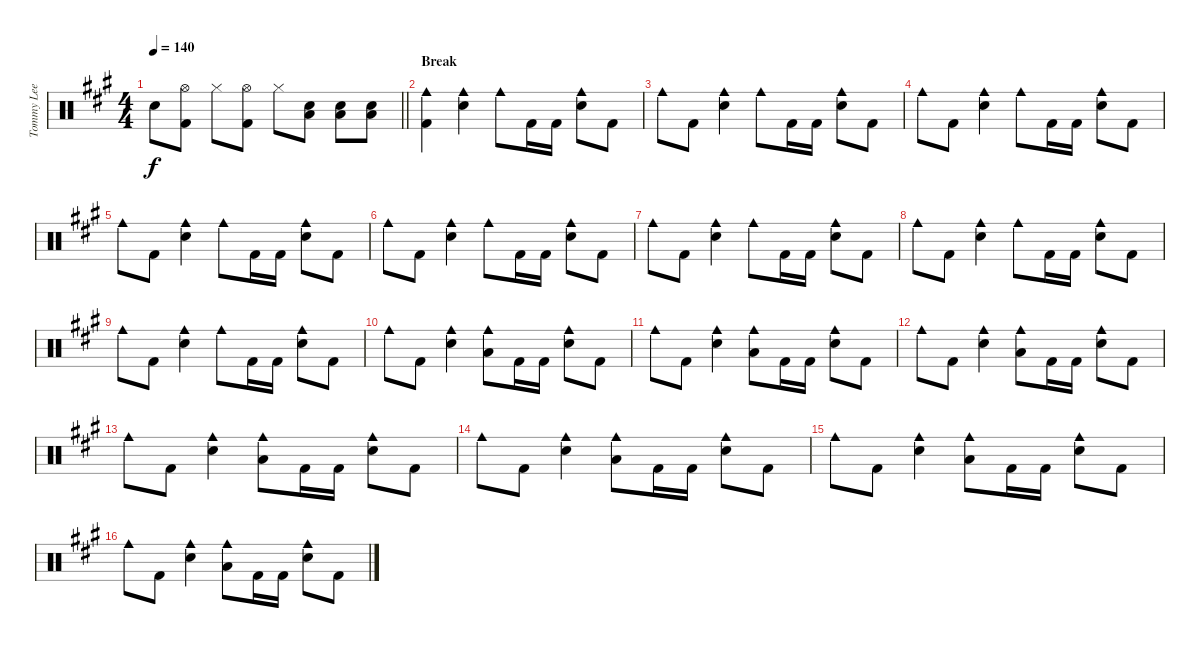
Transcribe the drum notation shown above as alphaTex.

\track ("Tommy Lee - Drums" "Tommy Lee ") {instrument percussion}
\staff {score}
\articulation defaults
\ts (4 4)
\tempo 140
\clef neutral
\barLineRight lightlight
\ks a "Snare (hit) 2".8{dy f}
("Hi-Hat (open)" "Kick (hit) 2").8 "Hi-Hat (closed)".8 ("Hi-Hat (open)" "Kick (hit) 2").8 "Hi-Hat (closed)".8 ("Low Tom (hit)" "Snare (hit) 2").8 ("Low Tom (hit)" "Snare (hit) 2").8 ("Low Tom (hit)" "Snare (hit) 2").8 |
\section ("" "Break")
("Cowbell medium (hit)" "Kick (hit) 2").4 ("Cowbell medium (hit)" "Snare (hit) 2").4 "Cowbell medium (hit)".8 "Kick (hit) 2".16 "Kick (hit) 2".16 ("Cowbell medium (hit)" "Snare (hit) 2").8 "Kick (hit) 2".8 |
"Cowbell medium (hit)".8 "Kick (hit) 2".8 ("Cowbell medium (hit)" "Snare (hit) 2").4 "Cowbell medium (hit)".8 "Kick (hit) 2".16 "Kick (hit) 2".16 ("Cowbell medium (hit)" "Snare (hit) 2").8 "Kick (hit) 2".8 |
"Cowbell medium (hit)".8 "Kick (hit) 2".8 ("Cowbell medium (hit)" "Snare (hit) 2").4 "Cowbell medium (hit)".8 "Kick (hit) 2".16 "Kick (hit) 2".16 ("Cowbell medium (hit)" "Snare (hit) 2").8 "Kick (hit) 2".8 |
"Cowbell medium (hit)".8 "Kick (hit) 2".8 ("Cowbell medium (hit)" "Snare (hit) 2").4 "Cowbell medium (hit)".8 "Kick (hit) 2".16 "Kick (hit) 2".16 ("Cowbell medium (hit)" "Snare (hit) 2").8 "Kick (hit) 2".8 |
"Cowbell medium (hit)".8 "Kick (hit) 2".8 ("Cowbell medium (hit)" "Snare (hit) 2").4 "Cowbell medium (hit)".8 "Kick (hit) 2".16 "Kick (hit) 2".16 ("Cowbell medium (hit)" "Snare (hit) 2").8 "Kick (hit) 2".8 |
"Cowbell medium (hit)".8 "Kick (hit) 2".8 ("Cowbell medium (hit)" "Snare (hit) 2").4 "Cowbell medium (hit)".8 "Kick (hit) 2".16 "Kick (hit) 2".16 ("Cowbell medium (hit)" "Snare (hit) 2").8 "Kick (hit) 2".8 |
"Cowbell medium (hit)".8 "Kick (hit) 2".8 ("Cowbell medium (hit)" "Snare (hit) 2").4 "Cowbell medium (hit)".8 "Kick (hit) 2".16 "Kick (hit) 2".16 ("Cowbell medium (hit)" "Snare (hit) 2").8 "Kick (hit) 2".8 |
"Cowbell medium (hit)".8 "Kick (hit) 2".8 ("Cowbell medium (hit)" "Snare (hit) 2").4 "Cowbell medium (hit)".8 "Kick (hit) 2".16 "Kick (hit) 2".16 ("Cowbell medium (hit)" "Snare (hit) 2").8 "Kick (hit) 2".8 |
"Cowbell medium (hit)".8 "Kick (hit) 2".8 ("Cowbell medium (hit)" "Snare (hit) 2").4 ("Cowbell medium (hit)" "Low Tom (hit)").8 "Kick (hit) 2".16 "Kick (hit) 2".16 ("Cowbell medium (hit)" "Snare (hit) 2").8 "Kick (hit) 2".8 |
"Cowbell medium (hit)".8 "Kick (hit) 2".8 ("Cowbell medium (hit)" "Snare (hit) 2").4 ("Cowbell medium (hit)" "Low Tom (hit)").8 "Kick (hit) 2".16 "Kick (hit) 2".16 ("Cowbell medium (hit)" "Snare (hit) 2").8 "Kick (hit) 2".8 |
"Cowbell medium (hit)".8 "Kick (hit) 2".8 ("Cowbell medium (hit)" "Snare (hit) 2").4 ("Cowbell medium (hit)" "Low Tom (hit)").8 "Kick (hit) 2".16 "Kick (hit) 2".16 ("Cowbell medium (hit)" "Snare (hit) 2").8 "Kick (hit) 2".8 |
"Cowbell medium (hit)".8 "Kick (hit) 2".8 ("Cowbell medium (hit)" "Snare (hit) 2").4 ("Cowbell medium (hit)" "Low Tom (hit)").8 "Kick (hit) 2".16 "Kick (hit) 2".16 ("Cowbell medium (hit)" "Snare (hit) 2").8 "Kick (hit) 2".8 |
"Cowbell medium (hit)".8 "Kick (hit) 2".8 ("Cowbell medium (hit)" "Snare (hit) 2").4 ("Cowbell medium (hit)" "Low Tom (hit)").8 "Kick (hit) 2".16 "Kick (hit) 2".16 ("Cowbell medium (hit)" "Snare (hit) 2").8 "Kick (hit) 2".8 |
"Cowbell medium (hit)".8 "Kick (hit) 2".8 ("Cowbell medium (hit)" "Snare (hit) 2").4 ("Cowbell medium (hit)" "Low Tom (hit)").8 "Kick (hit) 2".16 "Kick (hit) 2".16 ("Cowbell medium (hit)" "Snare (hit) 2").8 "Kick (hit) 2".8 |
"Cowbell medium (hit)".8 "Kick (hit) 2".8 ("Cowbell medium (hit)" "Snare (hit) 2").4 ("Cowbell medium (hit)" "Low Tom (hit)").8 "Kick (hit) 2".16 "Kick (hit) 2".16 ("Cowbell medium (hit)" "Snare (hit) 2").8 "Kick (hit) 2".8
